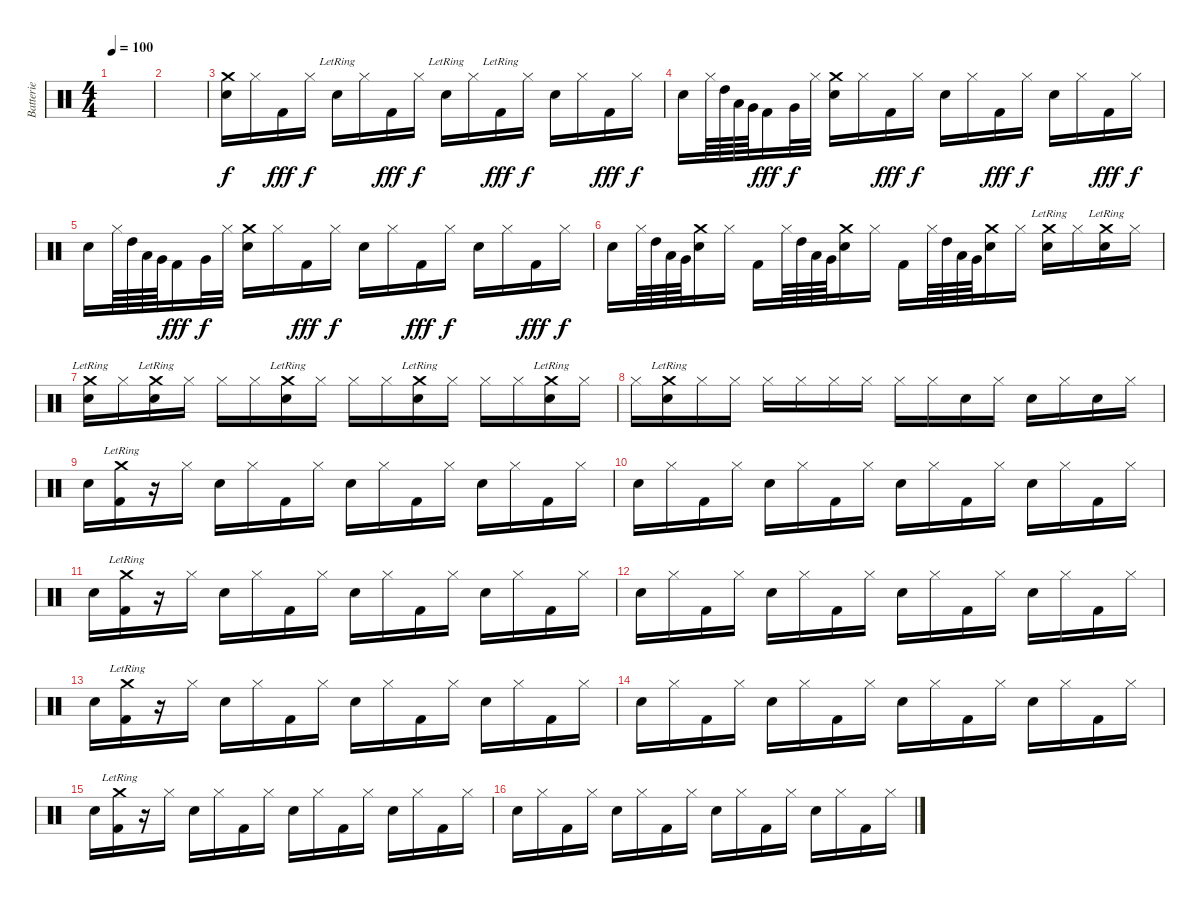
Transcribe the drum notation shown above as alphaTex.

\track ("Batterie" "Batterie") {instrument percussion}
\staff {score}
\articulation defaults
\ts (4 4)
\tempo 100
\clef neutral
\ks c
|
|
("Crash medium (hit)" "Metronome (bell)").16 "Hi-Hat (closed)".16 "Kick (hit) 2".16{dy fff} "Hi-Hat (closed)".16{dy f} "Metronome (bell)"{lr}.16 "Hi-Hat (closed)".16 "Kick (hit) 2".16{dy fff} "Hi-Hat (closed)".16{dy f} "Metronome (bell)"{lr}.16 "Hi-Hat (closed)".16 "Kick (hit) 2"{lr}.16{dy fff} "Hi-Hat (closed)".16{dy f} "Metronome (bell)".16 "Hi-Hat (closed)".16 "Kick (hit) 2".16{dy fff} "Hi-Hat (closed)".16{dy f} |
"Metronome (bell)".16 "Hi-Hat (closed)".64 "High Tom (hit)".64 "Low Tom (hit)".64 "Very Low Tom (hit)".64 "Kick (hit) 2".16{dy fff} "Very Low Tom (hit)".32{dy f} "Hi-Hat (closed)".32 ("Crash medium (hit)" "Metronome (bell)").16 "Hi-Hat (closed)".16 "Kick (hit) 2".16{dy fff} "Hi-Hat (closed)".16{dy f} "Metronome (bell)".16 "Hi-Hat (closed)".16 "Kick (hit) 2".16{dy fff} "Hi-Hat (closed)".16{dy f} "Metronome (bell)".16 "Hi-Hat (closed)".16 "Kick (hit) 2".16{dy fff} "Hi-Hat (closed)".16{dy f} |
"Metronome (bell)".16 "Hi-Hat (closed)".64 "High Tom (hit)".64 "Low Tom (hit)".64 "Very Low Tom (hit)".64 "Kick (hit) 2".16{dy fff} "Very Low Tom (hit)".32{dy f} "Hi-Hat (closed)".32 ("Crash medium (hit)" "Metronome (bell)").16 "Hi-Hat (closed)".16 "Kick (hit) 2".16{dy fff} "Hi-Hat (closed)".16{dy f} "Metronome (bell)".16 "Hi-Hat (closed)".16 "Kick (hit) 2".16{dy fff} "Hi-Hat (closed)".16{dy f} "Metronome (bell)".16 "Hi-Hat (closed)".16 "Kick (hit) 2".16{dy fff} "Hi-Hat (closed)".16{dy f} |
"Metronome (bell)".16 "Hi-Hat (closed)".64 "High Tom (hit)".64 "Low Tom (hit)".64 "Very Low Tom (hit)".64 ("Crash medium (hit)" "Metronome (bell)").16 "Hi-Hat (closed)".16 "Kick (hit) 2".16 "Hi-Hat (closed)".64 "High Tom (hit)".64 "Low Tom (hit)".64 "Very Low Tom (hit)".64 ("Crash medium (hit)" "Metronome (bell)").16 "Hi-Hat (closed)".16 "Kick (hit) 2".16 "Hi-Hat (closed)".64 "High Tom (hit)".64 "Low Tom (hit)".64 "Very Low Tom (hit)".64 ("Crash medium (hit)" "Metronome (bell)").16 "Hi-Hat (closed)".16 ("Crash medium (hit)"{lr} "Metronome (bell)").16 "Hi-Hat (closed)".16 ("Crash medium (hit)"{lr} "Metronome (bell)").16 "Hi-Hat (closed)".16 |
("Crash medium (hit)"{lr} "Metronome (bell)").16 "Hi-Hat (closed)".16 ("Crash medium (hit)"{lr} "Metronome (bell)").16 "Hi-Hat (closed)".16 "Hi-Hat (closed)".16 "Hi-Hat (closed)".16 ("Crash medium (hit)"{lr} "Metronome (bell)").16 "Hi-Hat (closed)".16 "Hi-Hat (closed)".16 "Hi-Hat (closed)".16 ("Crash medium (hit)"{lr} "Metronome (bell)").16 "Hi-Hat (closed)".16 "Hi-Hat (closed)".16 "Hi-Hat (closed)".16 ("Crash medium (hit)"{lr} "Metronome (bell)").16 "Hi-Hat (closed)".16 |
"Hi-Hat (closed)".16 ("Crash medium (hit)"{lr} "Metronome (bell)").16 "Hi-Hat (closed)".16 "Hi-Hat (closed)".16 "Hi-Hat (closed)".16 "Hi-Hat (closed)".16 "Hi-Hat (closed)".16 "Hi-Hat (closed)".16 "Hi-Hat (closed)".16 "Hi-Hat (closed)".16 "Metronome (bell)".16 "Hi-Hat (closed)".16 "Metronome (bell)".16 "Hi-Hat (closed)".16 "Metronome (bell)".16 "Hi-Hat (closed)".16 |
"Metronome (bell)".16 ("Crash medium (hit)"{lr} "Kick (hit) 2").16 r.16 "Hi-Hat (closed)".16 "Metronome (bell)".16 "Hi-Hat (closed)".16 "Kick (hit) 2".16 "Hi-Hat (closed)".16 "Metronome (bell)".16 "Hi-Hat (closed)".16 "Kick (hit) 2".16 "Hi-Hat (closed)".16 "Metronome (bell)".16 "Hi-Hat (closed)".16 "Kick (hit) 2".16 "Hi-Hat (closed)".16 |
"Metronome (bell)".16 "Hi-Hat (closed)".16 "Kick (hit) 2".16 "Hi-Hat (closed)".16 "Metronome (bell)".16 "Hi-Hat (closed)".16 "Kick (hit) 2".16 "Hi-Hat (closed)".16 "Metronome (bell)".16 "Hi-Hat (closed)".16 "Kick (hit) 2".16 "Hi-Hat (closed)".16 "Metronome (bell)".16 "Hi-Hat (closed)".16 "Kick (hit) 2".16 "Hi-Hat (closed)".16 |
"Metronome (bell)".16 ("Crash medium (hit)"{lr} "Kick (hit) 2").16 r.16 "Hi-Hat (closed)".16 "Metronome (bell)".16 "Hi-Hat (closed)".16 "Kick (hit) 2".16 "Hi-Hat (closed)".16 "Metronome (bell)".16 "Hi-Hat (closed)".16 "Kick (hit) 2".16 "Hi-Hat (closed)".16 "Metronome (bell)".16 "Hi-Hat (closed)".16 "Kick (hit) 2".16 "Hi-Hat (closed)".16 |
"Metronome (bell)".16 "Hi-Hat (closed)".16 "Kick (hit) 2".16 "Hi-Hat (closed)".16 "Metronome (bell)".16 "Hi-Hat (closed)".16 "Kick (hit) 2".16 "Hi-Hat (closed)".16 "Metronome (bell)".16 "Hi-Hat (closed)".16 "Kick (hit) 2".16 "Hi-Hat (closed)".16 "Metronome (bell)".16 "Hi-Hat (closed)".16 "Kick (hit) 2".16 "Hi-Hat (closed)".16 |
"Metronome (bell)".16 ("Crash medium (hit)"{lr} "Kick (hit) 2").16 r.16 "Hi-Hat (closed)".16 "Metronome (bell)".16 "Hi-Hat (closed)".16 "Kick (hit) 2".16 "Hi-Hat (closed)".16 "Metronome (bell)".16 "Hi-Hat (closed)".16 "Kick (hit) 2".16 "Hi-Hat (closed)".16 "Metronome (bell)".16 "Hi-Hat (closed)".16 "Kick (hit) 2".16 "Hi-Hat (closed)".16 |
"Metronome (bell)".16 "Hi-Hat (closed)".16 "Kick (hit) 2".16 "Hi-Hat (closed)".16 "Metronome (bell)".16 "Hi-Hat (closed)".16 "Kick (hit) 2".16 "Hi-Hat (closed)".16 "Metronome (bell)".16 "Hi-Hat (closed)".16 "Kick (hit) 2".16 "Hi-Hat (closed)".16 "Metronome (bell)".16 "Hi-Hat (closed)".16 "Kick (hit) 2".16 "Hi-Hat (closed)".16 |
"Metronome (bell)".16 ("Crash medium (hit)"{lr} "Kick (hit) 2").16 r.16 "Hi-Hat (closed)".16 "Metronome (bell)".16 "Hi-Hat (closed)".16 "Kick (hit) 2".16 "Hi-Hat (closed)".16 "Metronome (bell)".16 "Hi-Hat (closed)".16 "Kick (hit) 2".16 "Hi-Hat (closed)".16 "Metronome (bell)".16 "Hi-Hat (closed)".16 "Kick (hit) 2".16 "Hi-Hat (closed)".16 |
"Metronome (bell)".16 "Hi-Hat (closed)".16 "Kick (hit) 2".16 "Hi-Hat (closed)".16 "Metronome (bell)".16 "Hi-Hat (closed)".16 "Kick (hit) 2".16 "Hi-Hat (closed)".16 "Metronome (bell)".16 "Hi-Hat (closed)".16 "Kick (hit) 2".16 "Hi-Hat (closed)".16 "Metronome (bell)".16 "Hi-Hat (closed)".16 "Kick (hit) 2".16 "Hi-Hat (closed)".16
